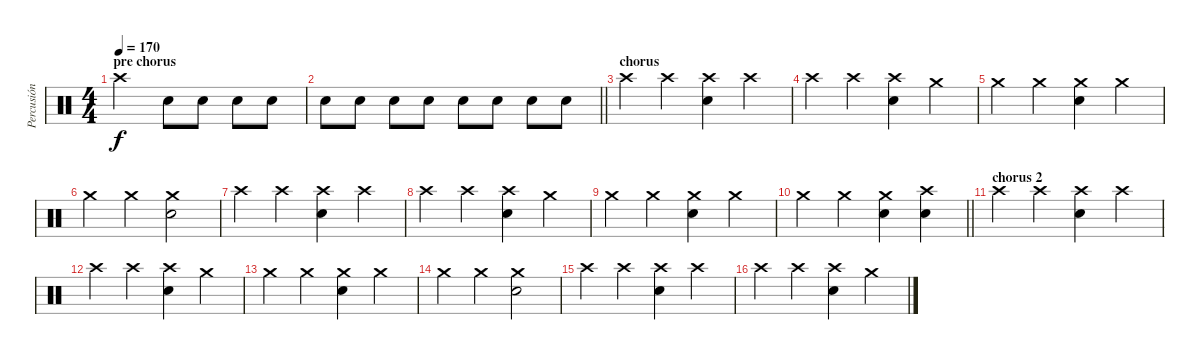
\track ("Percusión" "Percusión") {instrument percussion}
\staff {score}
\articulation defaults
\ts (4 4)
\section ("" "pre chorus")
\tempo 170
\clef neutral
\ks c "Crash high (hit)".2{dy f} "Electric Snare (hit)".8 "Electric Snare (hit)".8 "Electric Snare (hit)".8 "Electric Snare (hit)".8
|
\barLineRight lightlight "Electric Snare (hit)".8 "Electric Snare (hit)".8 "Electric Snare (hit)".8 "Electric Snare (hit)".8 "Electric Snare (hit)".8 "Electric Snare (hit)".8 "Electric Snare (hit)".8 "Electric Snare (hit)".8
|
\section ("" "chorus")
"Crash high (hit)".4 "Crash high (hit)".4 ("Crash high (hit)" "Electric Snare (hit)").4 "Crash high (hit)".4 |
"Crash high (hit)".4 "Crash high (hit)".4 ("Electric Snare (hit)" "Crash high (hit)").4 "Crash medium (hit)".4 |
"Crash medium (hit)".4 "Crash medium (hit)".4 ("Crash medium (hit)" "Electric Snare (hit)").4 "Crash medium (hit)".4 |
"Crash medium (hit)".4 "Crash medium (hit)".4 ("Crash medium (hit)" "Electric Snare (hit)").2 |
"Crash high (hit)".4 "Crash high (hit)".4 ("Crash high (hit)" "Electric Snare (hit)").4 "Crash high (hit)".4 |
"Crash high (hit)".4 "Crash high (hit)".4 ("Electric Snare (hit)" "Crash high (hit)").4 "Crash medium (hit)".4 |
"Crash medium (hit)".4 "Crash medium (hit)".4 ("Crash medium (hit)" "Electric Snare (hit)").4 "Crash medium (hit)".4 |
\barLineRight lightlight "Crash medium (hit)".4 "Crash medium (hit)".4
("Crash medium (hit)" "Electric Snare (hit)").4 ("Crash high (hit)" "Electric Snare (hit)").4 |
\section ("" "chorus 2")
"Crash high (hit)".4 "Crash high (hit)".4 ("Crash high (hit)" "Electric Snare (hit)").4 "Crash high (hit)".4 |
"Crash high (hit)".4 "Crash high (hit)".4 ("Electric Snare (hit)" "Crash high (hit)").4 "Crash medium (hit)".4 |
"Crash medium (hit)".4 "Crash medium (hit)".4 ("Crash medium (hit)" "Electric Snare (hit)").4 "Crash medium (hit)".4 |
"Crash medium (hit)".4 "Crash medium (hit)".4 ("Crash medium (hit)" "Electric Snare (hit)").2 |
"Crash high (hit)".4 "Crash high (hit)".4 ("Crash high (hit)" "Electric Snare (hit)").4 "Crash high (hit)".4 |
"Crash high (hit)".4 "Crash high (hit)".4 ("Electric Snare (hit)" "Crash high (hit)").4 "Crash medium (hit)".4
